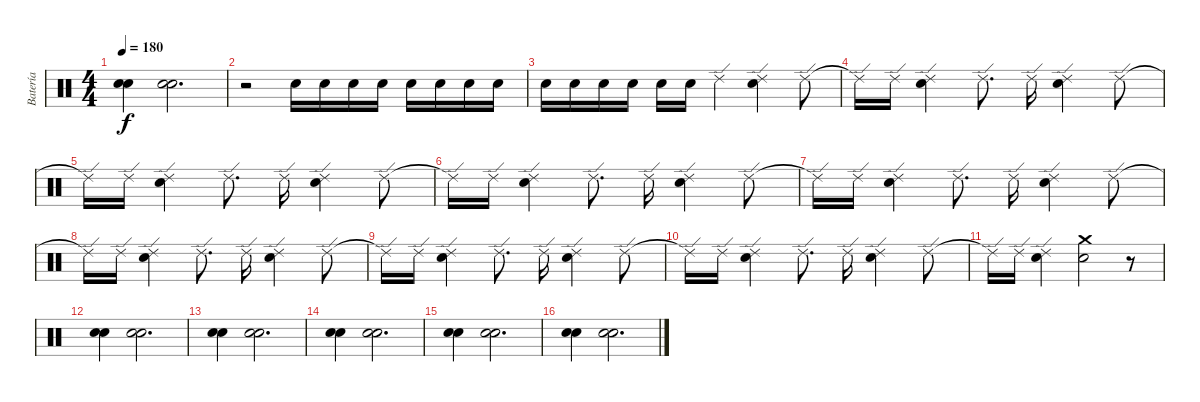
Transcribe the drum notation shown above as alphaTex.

\track ("Batería" "Batería") {instrument percussion}
\staff {score}
\articulation defaults
\ts (4 4)
\tempo 180
\clef neutral
\ks c
("Snare (hit) 2" "Snare (hit) 2").4{dy f} ("Snare (hit) 2" "Snare (hit) 2").2{d} |
r.2 "Snare (hit) 2".16 "Snare (hit) 2".16 "Snare (hit) 2".16 "Snare (hit) 2".16 "Snare (hit) 2".16 "Snare (hit) 2".16 "Snare (hit) 2".16 "Snare (hit) 2".16 |
"Snare (hit) 2".16 "Snare (hit) 2".16 "Snare (hit) 2".16 "Snare (hit) 2".16 "Snare (hit) 2".16 "Snare (hit) 2".16 "Ride (edge) 2".4 ("Ride (edge) 2" "Snare (hit) 2").4 "Ride (edge) 2".8 |
"Ride (edge) 2"{t}.16 "Ride (edge) 2".16 ("Ride (edge) 2" "Snare (hit) 2").4 "Ride (edge) 2".8{d} "Ride (edge) 2".16 ("Ride (edge) 2" "Snare (hit) 2").4 "Ride (edge) 2".8 |
"Ride (edge) 2"{t}.16 "Ride (edge) 2".16 ("Ride (edge) 2" "Snare (hit) 2").4 "Ride (edge) 2".8{d} "Ride (edge) 2".16 ("Ride (edge) 2" "Snare (hit) 2").4 "Ride (edge) 2".8 |
"Ride (edge) 2"{t}.16 "Ride (edge) 2".16 ("Ride (edge) 2" "Snare (hit) 2").4 "Ride (edge) 2".8{d} "Ride (edge) 2".16 ("Ride (edge) 2" "Snare (hit) 2").4 "Ride (edge) 2".8 |
"Ride (edge) 2"{t}.16 "Ride (edge) 2".16 ("Ride (edge) 2" "Snare (hit) 2").4 "Ride (edge) 2".8{d} "Ride (edge) 2".16 ("Ride (edge) 2" "Snare (hit) 2").4 "Ride (edge) 2".8 |
"Ride (edge) 2"{t}.16 "Ride (edge) 2".16 ("Ride (edge) 2" "Snare (hit) 2").4 "Ride (edge) 2".8{d} "Ride (edge) 2".16 ("Ride (edge) 2" "Snare (hit) 2").4 "Ride (edge) 2".8 |
"Ride (edge) 2"{t}.16 "Ride (edge) 2".16 ("Ride (edge) 2" "Snare (hit) 2").4 "Ride (edge) 2".8{d} "Ride (edge) 2".16 ("Ride (edge) 2" "Snare (hit) 2").4 "Ride (edge) 2".8 |
"Ride (edge) 2"{t}.16 "Ride (edge) 2".16 ("Ride (edge) 2" "Snare (hit) 2").4 "Ride (edge) 2".8{d} "Ride (edge) 2".16 ("Ride (edge) 2" "Snare (hit) 2").4 "Ride (edge) 2".8 |
"Ride (edge) 2"{t}.16 "Ride (edge) 2".16 ("Ride (edge) 2" "Snare (hit) 2").4 ("Crash medium (hit)" "Snare (hit) 2").2 r.8 |
("Snare (hit) 2" "Snare (hit) 2").4 ("Snare (hit) 2" "Snare (hit) 2").2{d} |
("Snare (hit) 2" "Snare (hit) 2").4 ("Snare (hit) 2" "Snare (hit) 2").2{d} |
("Snare (hit) 2" "Snare (hit) 2").4 ("Snare (hit) 2" "Snare (hit) 2").2{d} |
("Snare (hit) 2" "Snare (hit) 2").4 ("Snare (hit) 2" "Snare (hit) 2").2{d} |
("Snare (hit) 2" "Snare (hit) 2").4 ("Snare (hit) 2" "Snare (hit) 2").2{d}
